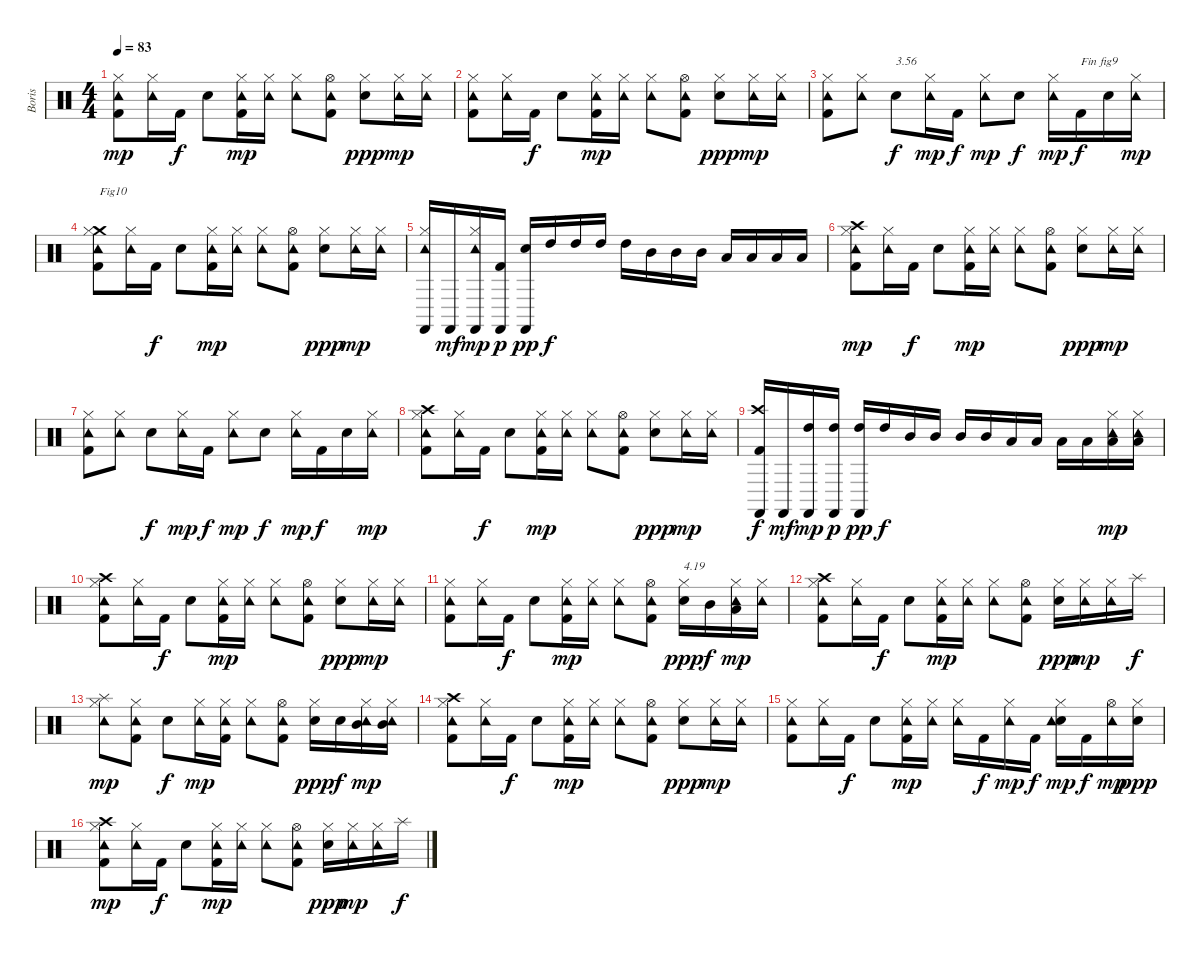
\track ("Boris" "Boris") {instrument percussion}
\staff {score}
\articulation defaults
\ts (4 4)
\tempo 83
\clef neutral
\ks c
("Kick (hit) 2" "Tambourine (hit)" "Hi-Hat (closed)").8{dy mp} ("Tambourine (hit)" "Hi-Hat (closed)").16 "Kick (hit) 2".16{dy f} "Electric Snare (hit)".8 ("Kick (hit) 2" "Tambourine (hit)" "Hi-Hat (closed)").16{dy mp} ("Tambourine (hit)" "Hi-Hat (closed)").16 ("Tambourine (hit)" "Hi-Hat (closed)").8 ("Kick (hit) 2" "Tambourine (hit)" "Hi-Hat (open)").8 ("Electric Snare (hit)" "Hi-Hat (closed)").8{dy ppp} ("Tambourine (hit)" "Hi-Hat (closed)").16{dy mp} ("Tambourine (hit)" "Hi-Hat (closed)").16 |
("Kick (hit) 2" "Tambourine (hit)" "Hi-Hat (closed)").8 ("Tambourine (hit)" "Hi-Hat (closed)").16 "Kick (hit) 2".16{dy f} "Electric Snare (hit)".8 ("Kick (hit) 2" "Tambourine (hit)" "Hi-Hat (closed)").16{dy mp} ("Tambourine (hit)" "Hi-Hat (closed)").16 ("Tambourine (hit)" "Hi-Hat (closed)").8 ("Kick (hit) 2" "Tambourine (hit)" "Hi-Hat (open)").8 ("Electric Snare (hit)" "Hi-Hat (closed)").8{dy ppp} ("Tambourine (hit)" "Hi-Hat (closed)").16{dy mp} ("Tambourine (hit)" "Hi-Hat (closed)").16 |
("Kick (hit) 2" "Tambourine (hit)" "Hi-Hat (closed)").8 ("Tambourine (hit)" "Hi-Hat (closed)").8 "Electric Snare (hit)".8{txt "3.56" dy f} ("Tambourine (hit)" "Hi-Hat (closed)").16{dy mp} "Kick (hit) 2".16{dy f} ("Tambourine (hit)" "Hi-Hat (closed)").8{dy mp} "Electric Snare (hit)".8{dy f} ("Tambourine (hit)" "Hi-Hat (closed)").16{dy mp} "Kick (hit) 2".16{txt "Fin fig9" dy f} "Electric Snare (hit)".16 ("Tambourine (hit)" "Hi-Hat (closed)").16{dy mp} |
("Kick (hit) 2" "Crash medium (hit)" "Tambourine (hit)" "Hi-Hat (closed)").8{txt "Fig10"} ("Tambourine (hit)" "Hi-Hat (closed)").16 "Kick (hit) 2".16{dy f} "Electric Snare (hit)".8 ("Kick (hit) 2" "Tambourine (hit)" "Hi-Hat (closed)").16{dy mp} ("Tambourine (hit)" "Hi-Hat (closed)").16 ("Tambourine (hit)" "Hi-Hat (closed)").8 ("Kick (hit) 2" "Tambourine (hit)" "Hi-Hat (open)").8 ("Electric Snare (hit)" "Hi-Hat (closed)").8{dy ppp} ("Tambourine (hit)" "Hi-Hat (closed)").16{dy mp} ("Tambourine (hit)" "Hi-Hat (closed)").16 |
("Castanets (hit)" "Tambourine (hit)" "Hi-Hat (closed)").16 "Castanets (hit)".16{dy mf} ("Castanets (hit)" "Tambourine (hit)" "Hi-Hat (closed)").16{dy mp} ("Kick (hit) 2" "Castanets (hit)").16{dy p} ("Electric Snare (hit)" "Castanets (hit)").16{dy pp} "High Tom (hit)".16{dy f} "High Tom (hit)".16 "High Tom (hit)".16 "High Tom (hit)".16 "Mid Tom (hit)".16 "Mid Tom (hit)".16 "Mid Tom (hit)".16 "Low Tom (hit)".16 "Low Tom (hit)".16 "Low Tom (hit)".16 "Low Tom (hit)".16 |
("Kick (hit) 2" "Crash high (hit)" "Tambourine (hit)" "Hi-Hat (closed)").8{dy mp} ("Tambourine (hit)" "Hi-Hat (closed)").16 "Kick (hit) 2".16{dy f} "Electric Snare (hit)".8 ("Kick (hit) 2" "Tambourine (hit)" "Hi-Hat (closed)").16{dy mp} ("Tambourine (hit)" "Hi-Hat (closed)").16 ("Tambourine (hit)" "Hi-Hat (closed)").8 ("Kick (hit) 2" "Tambourine (hit)" "Hi-Hat (open)").8 ("Electric Snare (hit)" "Hi-Hat (closed)").8{dy ppp} ("Tambourine (hit)" "Hi-Hat (closed)").16{dy mp} ("Tambourine (hit)" "Hi-Hat (closed)").16 |
("Kick (hit) 2" "Tambourine (hit)" "Hi-Hat (closed)").8 ("Tambourine (hit)" "Hi-Hat (closed)").8 "Electric Snare (hit)".8{dy f} ("Tambourine (hit)" "Hi-Hat (closed)").16{dy mp} "Kick (hit) 2".16{dy f} ("Tambourine (hit)" "Hi-Hat (closed)").8{dy mp} "Electric Snare (hit)".8{dy f} ("Tambourine (hit)" "Hi-Hat (closed)").16{dy mp} "Kick (hit) 2".16{dy f} "Electric Snare (hit)".16 ("Tambourine (hit)" "Hi-Hat (closed)").16{dy mp} |
("Kick (hit) 2" "Crash high (hit)" "Tambourine (hit)" "Hi-Hat (closed)").8 ("Tambourine (hit)" "Hi-Hat (closed)").16 "Kick (hit) 2".16{dy f} "Electric Snare (hit)".8 ("Kick (hit) 2" "Tambourine (hit)" "Hi-Hat (closed)").16{dy mp} ("Tambourine (hit)" "Hi-Hat (closed)").16 ("Tambourine (hit)" "Hi-Hat (closed)").8 ("Kick (hit) 2" "Tambourine (hit)" "Hi-Hat (open)").8 ("Electric Snare (hit)" "Hi-Hat (closed)").8{dy ppp} ("Tambourine (hit)" "Hi-Hat (closed)").16{dy mp} ("Tambourine (hit)" "Hi-Hat (closed)").16 |
("Kick (hit) 2" "Castanets (hit)" "Crash high (hit)").16{dy f} "Castanets (hit)".16{dy mf} ("High Tom (hit)" "Castanets (hit)").16{dy mp} ("High Tom (hit)" "Castanets (hit)").16{dy p} ("High Tom (hit)" "Castanets (hit)").16{dy pp} "High Tom (hit)".16{dy f} "Mid Tom (hit)".16 "Mid Tom (hit)".16 "Mid Tom (hit)".16 "Mid Tom (hit)".16 "Low Tom (hit)".16 "Low Tom (hit)".16 "Low Tom (hit)".16 "Low Tom (hit)".16 ("Low Tom (hit)" "Tambourine (hit)" "Hi-Hat (closed)").16{dy mp} ("Low Tom (hit)" "Tambourine (hit)" "Hi-Hat (closed)").16 |
("Kick (hit) 2" "Crash high (hit)" "Tambourine (hit)" "Hi-Hat (closed)").8 ("Tambourine (hit)" "Hi-Hat (closed)").16 "Kick (hit) 2".16{dy f} "Electric Snare (hit)".8 ("Kick (hit) 2" "Tambourine (hit)" "Hi-Hat (closed)").16{dy mp} ("Tambourine (hit)" "Hi-Hat (closed)").16 ("Tambourine (hit)" "Hi-Hat (closed)").8 ("Kick (hit) 2" "Tambourine (hit)" "Hi-Hat (open)").8 ("Electric Snare (hit)" "Hi-Hat (closed)").8{dy ppp} ("Tambourine (hit)" "Hi-Hat (closed)").16{dy mp} ("Tambourine (hit)" "Hi-Hat (closed)").16 |
("Kick (hit) 2" "Tambourine (hit)" "Hi-Hat (closed)").8 ("Tambourine (hit)" "Hi-Hat (closed)").16 "Kick (hit) 2".16{dy f} "Electric Snare (hit)".8 ("Kick (hit) 2" "Tambourine (hit)" "Hi-Hat (closed)").16{dy mp} ("Tambourine (hit)" "Hi-Hat (closed)").16 ("Tambourine (hit)" "Hi-Hat (closed)").8 ("Kick (hit) 2" "Tambourine (hit)" "Hi-Hat (open)").8 ("Electric Snare (hit)" "Hi-Hat (closed)").16{txt "4.19" dy ppp} "Mid Tom (hit)".16{dy f} ("Low Tom (hit)" "Tambourine (hit)" "Hi-Hat (closed)").16{dy mp} ("Tambourine (hit)" "Hi-Hat (closed)").16 |
("Kick (hit) 2" "Crash high (hit)" "Tambourine (hit)" "Hi-Hat (closed)").8 ("Tambourine (hit)" "Hi-Hat (closed)").16 "Kick (hit) 2".16{dy f} "Electric Snare (hit)".8 ("Kick (hit) 2" "Tambourine (hit)" "Hi-Hat (closed)").16{dy mp} ("Tambourine (hit)" "Hi-Hat (closed)").16 ("Tambourine (hit)" "Hi-Hat (closed)").8 ("Kick (hit) 2" "Tambourine (hit)" "Hi-Hat (open)").8 ("Electric Snare (hit)" "Hi-Hat (closed)").16{dy ppp} ("Tambourine (hit)" "Hi-Hat (closed)").16{dy mp} ("Tambourine (hit)" "Hi-Hat (closed)").16 "Splash (hit)".16{dy f} |
("Splash (hit)" "Tambourine (hit)" "Hi-Hat (closed)").8{dy mp} ("Kick (hit) 2" "Tambourine (hit)" "Hi-Hat (closed)").8 "Electric Snare (hit)".8{dy f} ("Tambourine (hit)" "Hi-Hat (closed)").16{dy mp} ("Kick (hit) 2" "Tambourine (hit)" "Hi-Hat (closed)").16 ("Tambourine (hit)" "Hi-Hat (closed)").8 ("Kick (hit) 2" "Tambourine (hit)" "Hi-Hat (open)").8 ("Electric Snare (hit)" "Hi-Hat (closed)").16{dy ppp} "Electric Snare (hit)".16{dy f} ("Mid Tom (hit)" "Tambourine (hit)" "Hi-Hat (closed)").16{dy mp} ("Mid Tom (hit)" "Tambourine (hit)" "Hi-Hat (closed)").16 |
("Kick (hit) 2" "Crash high (hit)" "Tambourine (hit)" "Hi-Hat (closed)").8 ("Tambourine (hit)" "Hi-Hat (closed)").16 "Kick (hit) 2".16{dy f} "Electric Snare (hit)".8 ("Kick (hit) 2" "Tambourine (hit)" "Hi-Hat (closed)").16{dy mp} ("Tambourine (hit)" "Hi-Hat (closed)").16 ("Tambourine (hit)" "Hi-Hat (closed)").8 ("Kick (hit) 2" "Tambourine (hit)" "Hi-Hat (open)").8 ("Electric Snare (hit)" "Hi-Hat (closed)").8{dy ppp} ("Tambourine (hit)" "Hi-Hat (closed)").16{dy mp} ("Tambourine (hit)" "Hi-Hat (closed)").16 |
("Kick (hit) 2" "Tambourine (hit)" "Hi-Hat (closed)").8 ("Tambourine (hit)" "Hi-Hat (closed)").16 "Kick (hit) 2".16{dy f} "Electric Snare (hit)".8 ("Kick (hit) 2" "Tambourine (hit)" "Hi-Hat (closed)").16{dy mp} ("Tambourine (hit)" "Hi-Hat (closed)").16 ("Tambourine (hit)" "Hi-Hat (closed)").16 "Kick (hit) 2".16{dy f} ("Tambourine (hit)" "Hi-Hat (closed)").16{dy mp} "Kick (hit) 2".16{dy f} ("Electric Snare (hit)" "Tambourine (hit)" "Hi-Hat (closed)").16{dy mp} "Kick (hit) 2".16{dy f} ("Tambourine (hit)" "Hi-Hat (open)").16{dy mp} ("Electric Snare (hit)" "Hi-Hat (closed)").16{dy ppp} |
("Kick (hit) 2" "Crash high (hit)" "Tambourine (hit)" "Hi-Hat (closed)").8{dy mp} ("Tambourine (hit)" "Hi-Hat (closed)").16 "Kick (hit) 2".16{dy f} "Electric Snare (hit)".8 ("Kick (hit) 2" "Tambourine (hit)" "Hi-Hat (closed)").16{dy mp} ("Tambourine (hit)" "Hi-Hat (closed)").16 ("Tambourine (hit)" "Hi-Hat (closed)").8 ("Kick (hit) 2" "Tambourine (hit)" "Hi-Hat (open)").8 ("Electric Snare (hit)" "Hi-Hat (closed)").16{dy ppp} ("Tambourine (hit)" "Hi-Hat (closed)").16{dy mp} ("Tambourine (hit)" "Hi-Hat (closed)").16 "Splash (hit)".16{dy f}
